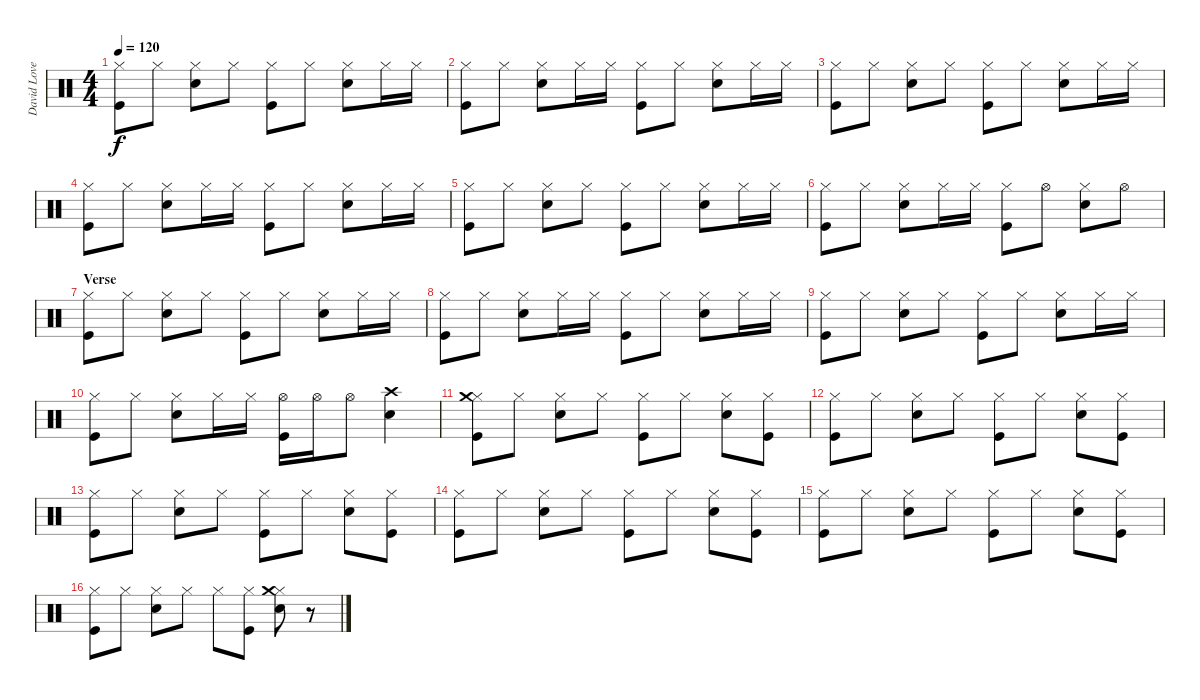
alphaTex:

\track ("David Lovering" "David Love") {instrument percussion}
\staff {score}
\articulation defaults
\ts (4 4)
\tempo 120
\clef neutral
\ks c
("Hi-Hat (closed)" "Kick (hit)").8{dy f} "Hi-Hat (closed)".8 ("Hi-Hat (closed)" "Snare (hit) 2").8 "Hi-Hat (closed)".8 ("Hi-Hat (closed)" "Kick (hit)").8 "Hi-Hat (closed)".8 ("Hi-Hat (closed)" "Snare (hit) 2").8 "Hi-Hat (closed)".16 "Hi-Hat (closed)".16 |
("Hi-Hat (closed)" "Kick (hit)").8 "Hi-Hat (closed)".8 ("Hi-Hat (closed)" "Snare (hit) 2").8 "Hi-Hat (closed)".16 "Hi-Hat (closed)".16 ("Hi-Hat (closed)" "Kick (hit)").8 "Hi-Hat (closed)".8 ("Hi-Hat (closed)" "Snare (hit) 2").8 "Hi-Hat (closed)".16 "Hi-Hat (closed)".16 |
("Hi-Hat (closed)" "Kick (hit)").8 "Hi-Hat (closed)".8 ("Hi-Hat (closed)" "Snare (hit) 2").8 "Hi-Hat (closed)".8 ("Hi-Hat (closed)" "Kick (hit)").8 "Hi-Hat (closed)".8 ("Hi-Hat (closed)" "Snare (hit) 2").8 "Hi-Hat (closed)".16 "Hi-Hat (closed)".16 |
("Hi-Hat (closed)" "Kick (hit)").8 "Hi-Hat (closed)".8 ("Hi-Hat (closed)" "Snare (hit) 2").8 "Hi-Hat (closed)".16 "Hi-Hat (closed)".16 ("Hi-Hat (closed)" "Kick (hit)").8 "Hi-Hat (closed)".8 ("Hi-Hat (closed)" "Snare (hit) 2").8 "Hi-Hat (closed)".16 "Hi-Hat (closed)".16 |
("Hi-Hat (closed)" "Kick (hit)").8 "Hi-Hat (closed)".8 ("Hi-Hat (closed)" "Snare (hit) 2").8 "Hi-Hat (closed)".8 ("Hi-Hat (closed)" "Kick (hit)").8 "Hi-Hat (closed)".8 ("Hi-Hat (closed)" "Snare (hit) 2").8 "Hi-Hat (closed)".16 "Hi-Hat (closed)".16 |
("Hi-Hat (closed)" "Kick (hit)").8 "Hi-Hat (closed)".8 ("Hi-Hat (closed)" "Snare (hit) 2").8 "Hi-Hat (closed)".16 "Hi-Hat (closed)".16 ("Hi-Hat (closed)" "Kick (hit)").8 "Hi-Hat (open)".8 ("Hi-Hat (closed)" "Snare (hit) 2").8 "Hi-Hat (open)".8 |
\section ("" "Verse")
("Hi-Hat (closed)" "Kick (hit)").8 "Hi-Hat (closed)".8 ("Hi-Hat (closed)" "Snare (hit) 2").8 "Hi-Hat (closed)".8 ("Hi-Hat (closed)" "Kick (hit)").8 "Hi-Hat (closed)".8 ("Hi-Hat (closed)" "Snare (hit) 2").8 "Hi-Hat (closed)".16 "Hi-Hat (closed)".16 |
("Hi-Hat (closed)" "Kick (hit)").8 "Hi-Hat (closed)".8 ("Hi-Hat (closed)" "Snare (hit) 2").8 "Hi-Hat (closed)".16 "Hi-Hat (closed)".16 ("Hi-Hat (closed)" "Kick (hit)").8 "Hi-Hat (closed)".8 ("Hi-Hat (closed)" "Snare (hit) 2").8 "Hi-Hat (closed)".16 "Hi-Hat (closed)".16 |
("Hi-Hat (closed)" "Kick (hit)").8 "Hi-Hat (closed)".8 ("Hi-Hat (closed)" "Snare (hit) 2").8 "Hi-Hat (closed)".8 ("Hi-Hat (closed)" "Kick (hit)").8 "Hi-Hat (closed)".8 ("Hi-Hat (closed)" "Snare (hit) 2").8 "Hi-Hat (closed)".16 "Hi-Hat (closed)".16 |
("Hi-Hat (closed)" "Kick (hit)").8 "Hi-Hat (closed)".8 ("Hi-Hat (closed)" "Snare (hit) 2").8 "Hi-Hat (closed)".16 "Hi-Hat (closed)".16 ("Hi-Hat (open)" "Kick (hit)").16 "Hi-Hat (open)".16 "Hi-Hat (open)".8 ("Crash high (hit)" "Snare (hit) 2").4 |
\section ("" "")
("Hi-Hat (closed)" "Crash medium (hit)" "Kick (hit)").8 "Hi-Hat (closed)".8 ("Hi-Hat (closed)" "Snare (hit) 2").8 "Hi-Hat (closed)".8 ("Hi-Hat (closed)" "Kick (hit)").8 "Hi-Hat (closed)".8 ("Hi-Hat (closed)" "Snare (hit) 2").8 ("Hi-Hat (closed)" "Kick (hit)").8 |
("Hi-Hat (closed)" "Kick (hit)").8 "Hi-Hat (closed)".8 ("Hi-Hat (closed)" "Snare (hit) 2").8 "Hi-Hat (closed)".8 ("Hi-Hat (closed)" "Kick (hit)").8 "Hi-Hat (closed)".8 ("Hi-Hat (closed)" "Snare (hit) 2").8 ("Hi-Hat (closed)" "Kick (hit)").8 |
("Hi-Hat (closed)" "Kick (hit)").8 "Hi-Hat (closed)".8 ("Hi-Hat (closed)" "Snare (hit) 2").8 "Hi-Hat (closed)".8 ("Hi-Hat (closed)" "Kick (hit)").8 "Hi-Hat (closed)".8 ("Hi-Hat (closed)" "Snare (hit) 2").8 ("Hi-Hat (closed)" "Kick (hit)").8 |
("Hi-Hat (closed)" "Kick (hit)").8 "Hi-Hat (closed)".8 ("Hi-Hat (closed)" "Snare (hit) 2").8 "Hi-Hat (closed)".8 ("Hi-Hat (closed)" "Kick (hit)").8 "Hi-Hat (closed)".8 ("Hi-Hat (closed)" "Snare (hit) 2").8 ("Hi-Hat (closed)" "Kick (hit)").8 |
("Hi-Hat (closed)" "Kick (hit)").8 "Hi-Hat (closed)".8 ("Hi-Hat (closed)" "Snare (hit) 2").8 "Hi-Hat (closed)".8 ("Hi-Hat (closed)" "Kick (hit)").8 "Hi-Hat (closed)".8 ("Hi-Hat (closed)" "Snare (hit) 2").8 ("Hi-Hat (closed)" "Kick (hit)").8 |
("Hi-Hat (closed)" "Kick (hit)").8 "Hi-Hat (closed)".8 ("Hi-Hat (closed)" "Snare (hit) 2").8 "Hi-Hat (closed)".8 "Hi-Hat (closed)".8 ("Hi-Hat (closed)" "Kick (hit)").8 ("Hi-Hat (closed)" "Crash medium (hit)" "Snare (hit) 2").8 r.8
